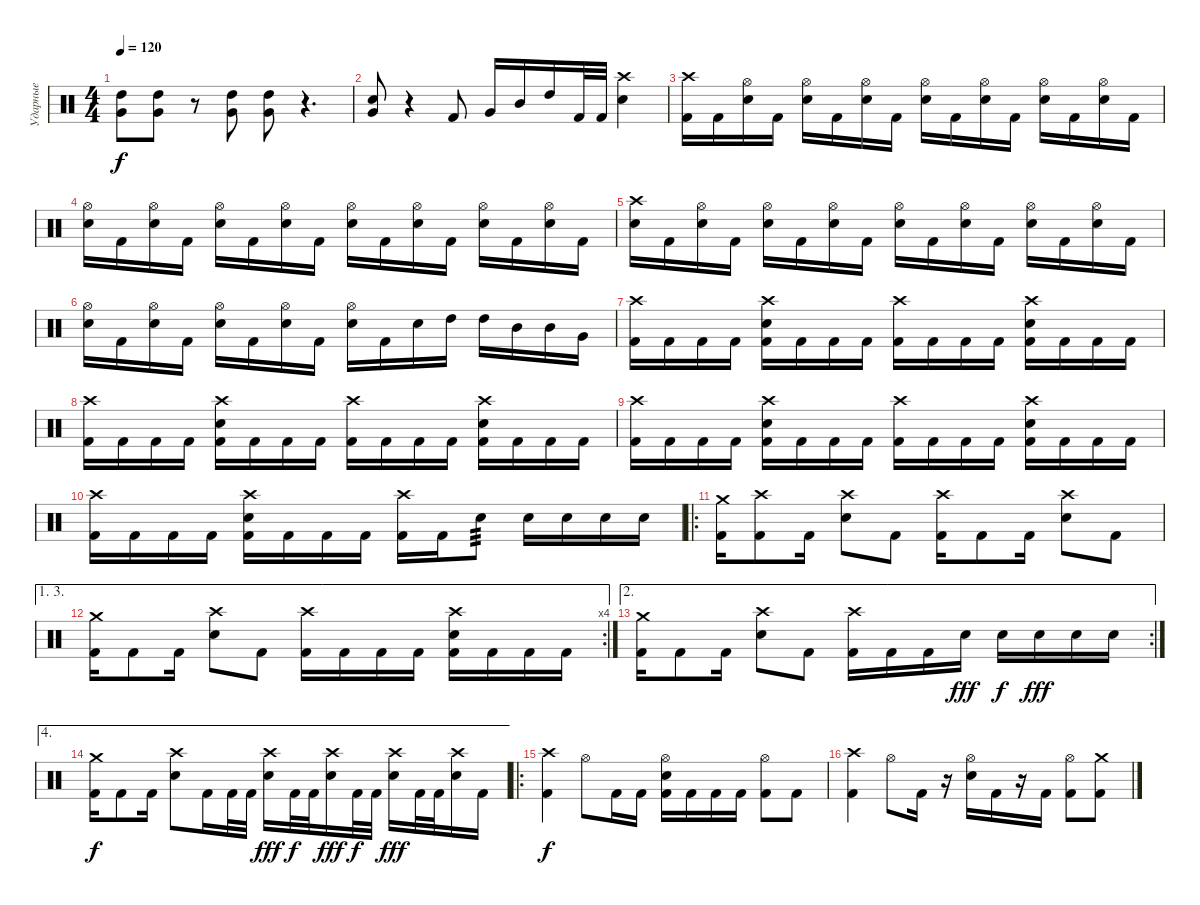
\track ("Ударные" "Ударные") {instrument percussion}
\staff {score}
\articulation defaults
\ts (4 4)
\tempo 120
\clef neutral
\ks c
("Very Low Tom (hit)" "High Tom (hit)").8{dy f} ("Very Low Tom (hit)" "High Tom (hit)").8 r.8 ("Very Low Tom (hit)" "High Tom (hit)").8 ("Very Low Tom (hit)" "High Tom (hit)").8 r.4{d} |
("Very Low Tom (hit)" "Electric Snare (hit)").8 r.4 "Kick (hit) 2".8 "Very Low Tom (hit)".16 "Mid Tom (hit)".16 "High Tom (hit)".16 "Kick (hit) 2".32 "Kick (hit) 2".32 ("Crash high (hit)" "Electric Snare (hit)").4 |
("Crash high (hit)" "Kick (hit) 2").16 "Kick (hit) 2".16 ("Hi-Hat (open)" "Electric Snare (hit)").16 "Kick (hit) 2".16 ("Hi-Hat (open)" "Electric Snare (hit)").16 "Kick (hit) 2".16 ("Hi-Hat (open)" "Electric Snare (hit)").16 "Kick (hit) 2".16 ("Hi-Hat (open)" "Electric Snare (hit)").16 "Kick (hit) 2".16 ("Hi-Hat (open)" "Electric Snare (hit)").16 "Kick (hit) 2".16 ("Hi-Hat (open)" "Electric Snare (hit)").16 "Kick (hit) 2".16 ("Hi-Hat (open)" "Electric Snare (hit)").16 "Kick (hit) 2".16 |
("Hi-Hat (open)" "Electric Snare (hit)").16 "Kick (hit) 2".16 ("Hi-Hat (open)" "Electric Snare (hit)").16 "Kick (hit) 2".16 ("Hi-Hat (open)" "Electric Snare (hit)").16 "Kick (hit) 2".16 ("Hi-Hat (open)" "Electric Snare (hit)").16 "Kick (hit) 2".16 ("Hi-Hat (open)" "Electric Snare (hit)").16 "Kick (hit) 2".16 ("Hi-Hat (open)" "Electric Snare (hit)").16 "Kick (hit) 2".16 ("Hi-Hat (open)" "Electric Snare (hit)").16 "Kick (hit) 2".16 ("Hi-Hat (open)" "Electric Snare (hit)").16 "Kick (hit) 2".16 |
("Crash high (hit)" "Electric Snare (hit)").16 "Kick (hit) 2".16 ("Hi-Hat (open)" "Electric Snare (hit)").16 "Kick (hit) 2".16 ("Hi-Hat (open)" "Electric Snare (hit)").16 "Kick (hit) 2".16 ("Hi-Hat (open)" "Electric Snare (hit)").16 "Kick (hit) 2".16 ("Hi-Hat (open)" "Electric Snare (hit)").16 "Kick (hit) 2".16 ("Hi-Hat (open)" "Electric Snare (hit)").16 "Kick (hit) 2".16 ("Hi-Hat (open)" "Electric Snare (hit)").16 "Kick (hit) 2".16 ("Hi-Hat (open)" "Electric Snare (hit)").16 "Kick (hit) 2".16 |
("Hi-Hat (open)" "Electric Snare (hit)").16 "Kick (hit) 2".16 ("Hi-Hat (open)" "Electric Snare (hit)").16 "Kick (hit) 2".16 ("Hi-Hat (open)" "Electric Snare (hit)").16 "Kick (hit) 2".16 ("Hi-Hat (open)" "Electric Snare (hit)").16 "Kick (hit) 2".16 ("Hi-Hat (open)" "Electric Snare (hit)").16 "Kick (hit) 2".16 "Electric Snare (hit)".16 "High Tom (hit)".16 "High Tom (hit)".16 "Mid Tom (hit)".16 "Mid Tom (hit)".16 "Very Low Tom (hit)".16 |
("Crash high (hit)" "Kick (hit) 2").16 "Kick (hit) 2".16 "Kick (hit) 2".16 "Kick (hit) 2".16 ("Crash high (hit)" "Electric Snare (hit)" "Kick (hit) 2").16 "Kick (hit) 2".16 "Kick (hit) 2".16 "Kick (hit) 2".16 ("Crash high (hit)" "Kick (hit) 2").16 "Kick (hit) 2".16 "Kick (hit) 2".16 "Kick (hit) 2".16 ("Crash high (hit)" "Electric Snare (hit)" "Kick (hit) 2").16 "Kick (hit) 2".16 "Kick (hit) 2".16 "Kick (hit) 2".16 |
("Crash high (hit)" "Kick (hit) 2").16 "Kick (hit) 2".16 "Kick (hit) 2".16 "Kick (hit) 2".16 ("Crash high (hit)" "Electric Snare (hit)" "Kick (hit) 2").16 "Kick (hit) 2".16 "Kick (hit) 2".16 "Kick (hit) 2".16 ("Crash high (hit)" "Kick (hit) 2").16 "Kick (hit) 2".16 "Kick (hit) 2".16 "Kick (hit) 2".16 ("Crash high (hit)" "Electric Snare (hit)" "Kick (hit) 2").16 "Kick (hit) 2".16 "Kick (hit) 2".16 "Kick (hit) 2".16 |
("Crash high (hit)" "Kick (hit) 2").16 "Kick (hit) 2".16 "Kick (hit) 2".16 "Kick (hit) 2".16 ("Crash high (hit)" "Electric Snare (hit)" "Kick (hit) 2").16 "Kick (hit) 2".16 "Kick (hit) 2".16 "Kick (hit) 2".16 ("Crash high (hit)" "Kick (hit) 2").16 "Kick (hit) 2".16 "Kick (hit) 2".16 "Kick (hit) 2".16 ("Crash high (hit)" "Electric Snare (hit)" "Kick (hit) 2").16 "Kick (hit) 2".16 "Kick (hit) 2".16 "Kick (hit) 2".16 |
("Crash high (hit)" "Kick (hit) 2").16 "Kick (hit) 2".16 "Kick (hit) 2".16 "Kick (hit) 2".16 ("Crash high (hit)" "Electric Snare (hit)" "Kick (hit) 2").16 "Kick (hit) 2".16 "Kick (hit) 2".16 "Kick (hit) 2".16 ("Crash high (hit)" "Kick (hit) 2").16 "Kick (hit) 2".16 "Electric Snare (hit)".8{tp 3} "Electric Snare (hit)".16 "Electric Snare (hit)".16 "Electric Snare (hit)".16 "Electric Snare (hit)".16 |
\ro
("Crash medium (hit)" "Kick (hit) 2").16 ("Crash high (hit)" "Kick (hit) 2").8 "Kick (hit) 2".16 ("Crash high (hit)" "Electric Snare (hit)").8 "Kick (hit) 2".8 ("Crash high (hit)" "Kick (hit) 2").16 "Kick (hit) 2".8 "Kick (hit) 2".16 ("Crash high (hit)" "Electric Snare (hit)").8 "Kick (hit) 2".8 |
\ae (1 3)
\rc 4
("Crash medium (hit)" "Kick (hit) 2").16 "Kick (hit) 2".8 "Kick (hit) 2".16 ("Crash high (hit)" "Electric Snare (hit)").8 "Kick (hit) 2".8 ("Crash high (hit)" "Kick (hit) 2").16 "Kick (hit) 2".16 "Kick (hit) 2".16 "Kick (hit) 2".16 ("Crash high (hit)" "Electric Snare (hit)" "Kick (hit) 2").16 "Kick (hit) 2".16 "Kick (hit) 2".16 "Kick (hit) 2".16 |
\ae 2
\rc 2
("Crash medium (hit)" "Kick (hit) 2").16 "Kick (hit) 2".8 "Kick (hit) 2".16 ("Crash high (hit)" "Electric Snare (hit)").8 "Kick (hit) 2".8 ("Crash high (hit)" "Kick (hit) 2").16 "Kick (hit) 2".16 "Kick (hit) 2".16 "Electric Snare (hit)".16{dy fff} "Electric Snare (hit)".16{dy f} "Electric Snare (hit)".16{dy fff} "Electric Snare (hit)".16 "Electric Snare (hit)".16 |
\ae 4
("Crash medium (hit)" "Kick (hit) 2").16{dy f} "Kick (hit) 2".8 "Kick (hit) 2".16 ("Crash high (hit)" "Electric Snare (hit)").8 "Kick (hit) 2".16 "Kick (hit) 2".32 "Kick (hit) 2".32 ("Crash high (hit)" "Electric Snare (hit)").16{dy fff} "Kick (hit) 2".32{dy f} "Kick (hit) 2".32 ("Crash high (hit)" "Electric Snare (hit)").16{dy fff} "Kick (hit) 2".32{dy f} "Kick (hit) 2".32 ("Crash high (hit)" "Electric Snare (hit)").16{dy fff} "Kick (hit) 2".32 "Kick (hit) 2".32 ("Crash high (hit)" "Electric Snare (hit)").16 "Kick (hit) 2".16 |
\ro
("Crash high (hit)" "Kick (hit) 2").4{dy f} "Hi-Hat (open)".8 "Kick (hit) 2".16 "Kick (hit) 2".16 ("Hi-Hat (open)" "Electric Snare (hit)" "Kick (hit) 2").16 "Kick (hit) 2".16 "Kick (hit) 2".16 "Kick (hit) 2".16 ("Hi-Hat (open)" "Kick (hit) 2").8 "Kick (hit) 2".8 |
("Crash high (hit)" "Kick (hit) 2").4 "Hi-Hat (open)".8 "Kick (hit) 2".16 r.16 ("Hi-Hat (open)" "Electric Snare (hit)").16 "Kick (hit) 2".16 r.16 "Kick (hit) 2".16 ("Hi-Hat (open)" "Kick (hit) 2").8 ("Crash medium (hit)" "Kick (hit) 2").8
